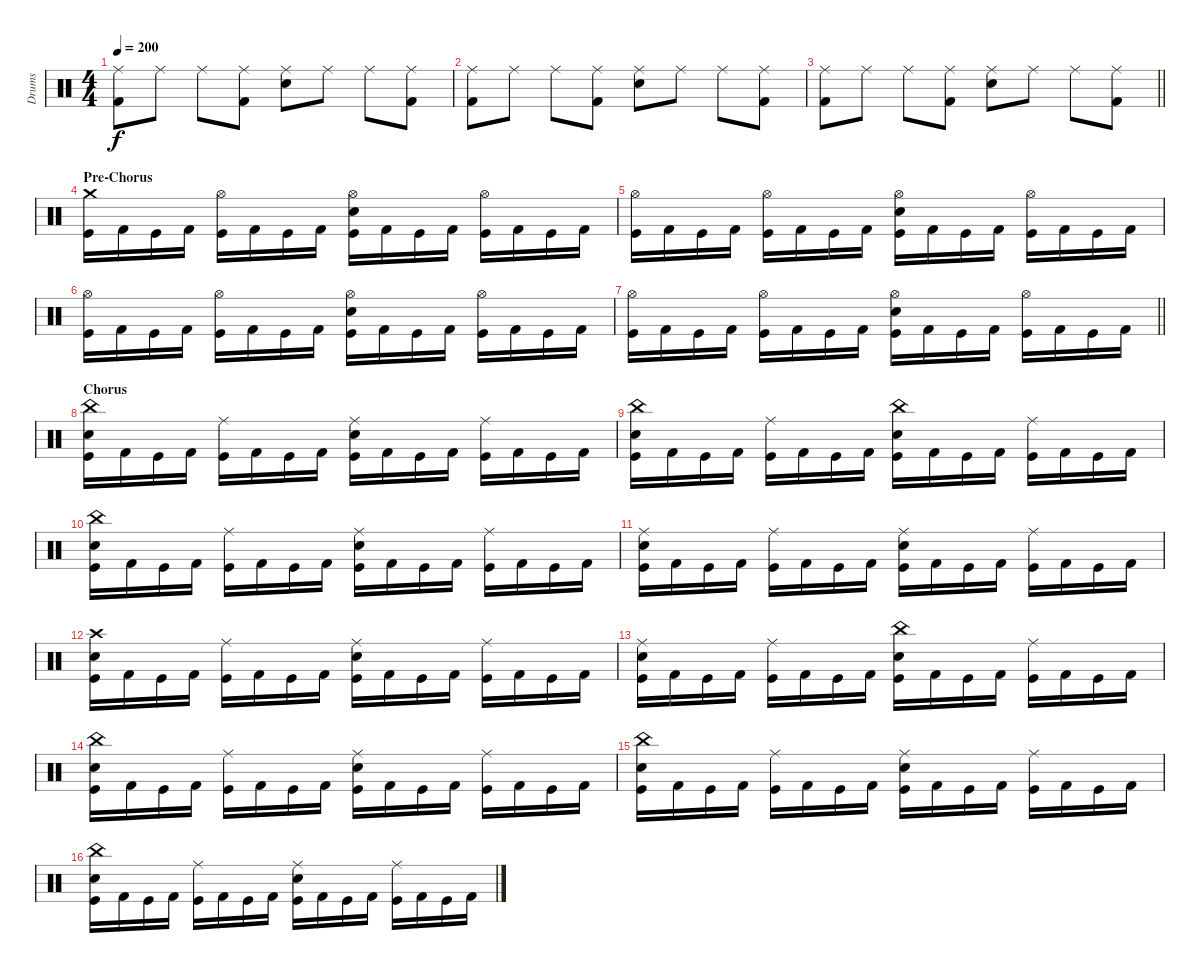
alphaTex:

\track ("Drums" "Drums") {instrument percussion}
\staff {score}
\articulation defaults
\ts (4 4)
\tempo 200
\clef neutral
\ks c
("Ride (middle)" "Kick (hit) 2").8{dy f} "Ride (middle)".8 "Ride (middle)".8 ("Ride (middle)" "Kick (hit) 2").8 ("Ride (middle)" "Electric Snare (hit)").8 "Ride (middle)".8 "Ride (middle)".8 ("Ride (middle)" "Kick (hit) 2").8 |
("Ride (middle)" "Kick (hit) 2").8 "Ride (middle)".8 "Ride (middle)".8 ("Ride (middle)" "Kick (hit) 2").8 ("Ride (middle)" "Electric Snare (hit)").8 "Ride (middle)".8 "Ride (middle)".8 ("Ride (middle)" "Kick (hit) 2").8 |
\barLineRight lightlight
("Ride (middle)" "Kick (hit) 2").8 "Ride (middle)".8 "Ride (middle)".8 ("Ride (middle)" "Kick (hit) 2").8 ("Ride (middle)" "Electric Snare (hit)").8 "Ride (middle)".8 "Ride (middle)".8 ("Ride (middle)" "Kick (hit) 2").8 |
\section ("" "Pre-Chorus")
("Crash medium (hit)" "Kick (hit)").16 "Kick (hit) 2".16 "Kick (hit)".16 "Kick (hit) 2".16 ("Hi-Hat (open)" "Kick (hit)").16 "Kick (hit) 2".16 "Kick (hit)".16 "Kick (hit) 2".16 ("Hi-Hat (open)" "Electric Snare (hit)" "Kick (hit)").16 "Kick (hit) 2".16 "Kick (hit)".16 "Kick (hit) 2".16 ("Hi-Hat (open)" "Kick (hit)").16 "Kick (hit) 2".16 "Kick (hit)".16 "Kick (hit) 2".16 |
("Hi-Hat (open)" "Kick (hit)").16 "Kick (hit) 2".16 "Kick (hit)".16 "Kick (hit) 2".16 ("Hi-Hat (open)" "Kick (hit)").16 "Kick (hit) 2".16 "Kick (hit)".16 "Kick (hit) 2".16 ("Hi-Hat (open)" "Electric Snare (hit)" "Kick (hit)").16 "Kick (hit) 2".16 "Kick (hit)".16 "Kick (hit) 2".16 ("Hi-Hat (open)" "Kick (hit)").16 "Kick (hit) 2".16 "Kick (hit)".16 "Kick (hit) 2".16 |
("Hi-Hat (open)" "Kick (hit)").16 "Kick (hit) 2".16 "Kick (hit)".16 "Kick (hit) 2".16 ("Hi-Hat (open)" "Kick (hit)").16 "Kick (hit) 2".16 "Kick (hit)".16 "Kick (hit) 2".16 ("Hi-Hat (open)" "Electric Snare (hit)" "Kick (hit)").16 "Kick (hit) 2".16 "Kick (hit)".16 "Kick (hit) 2".16 ("Hi-Hat (open)" "Kick (hit)").16 "Kick (hit) 2".16 "Kick (hit)".16 "Kick (hit) 2".16 |
\barLineRight lightlight
("Hi-Hat (open)" "Kick (hit)").16 "Kick (hit) 2".16 "Kick (hit)".16 "Kick (hit) 2".16 ("Hi-Hat (open)" "Kick (hit)").16 "Kick (hit) 2".16 "Kick (hit)".16 "Kick (hit) 2".16 ("Hi-Hat (open)" "Electric Snare (hit)" "Kick (hit)").16 "Kick (hit) 2".16 "Kick (hit)".16 "Kick (hit) 2".16 ("Hi-Hat (open)" "Kick (hit)").16 "Kick (hit) 2".16 "Kick (hit)".16 "Kick (hit) 2".16 |
\section ("" "Chorus")
("China (hit)" "Electric Snare (hit)" "Kick (hit)").16 "Kick (hit) 2".16 "Kick (hit)".16 "Kick (hit) 2".16 ("Ride (middle)" "Kick (hit)").16 "Kick (hit) 2".16 "Kick (hit)".16 "Kick (hit) 2".16 ("Ride (middle)" "Electric Snare (hit)" "Kick (hit)").16 "Kick (hit) 2".16 "Kick (hit)".16 "Kick (hit) 2".16 ("Ride (middle)" "Kick (hit)").16 "Kick (hit) 2".16 "Kick (hit)".16 "Kick (hit) 2".16 |
("China (hit)" "Electric Snare (hit)" "Kick (hit)").16 "Kick (hit) 2".16 "Kick (hit)".16 "Kick (hit) 2".16 ("Ride (middle)" "Kick (hit)").16 "Kick (hit) 2".16 "Kick (hit)".16 "Kick (hit) 2".16 ("China (hit)" "Electric Snare (hit)" "Kick (hit)").16 "Kick (hit) 2".16 "Kick (hit)".16 "Kick (hit) 2".16 ("Ride (middle)" "Kick (hit)").16 "Kick (hit) 2".16 "Kick (hit)".16 "Kick (hit) 2".16 |
("China (hit)" "Electric Snare (hit)" "Kick (hit)").16 "Kick (hit) 2".16 "Kick (hit)".16 "Kick (hit) 2".16 ("Ride (middle)" "Kick (hit)").16 "Kick (hit) 2".16 "Kick (hit)".16 "Kick (hit) 2".16 ("Ride (middle)" "Electric Snare (hit)" "Kick (hit)").16 "Kick (hit) 2".16 "Kick (hit)".16 "Kick (hit) 2".16 ("Ride (middle)" "Kick (hit)").16 "Kick (hit) 2".16 "Kick (hit)".16 "Kick (hit) 2".16 |
("Ride (middle)" "Electric Snare (hit)" "Kick (hit)").16 "Kick (hit) 2".16 "Kick (hit)".16 "Kick (hit) 2".16 ("Ride (middle)" "Kick (hit)").16 "Kick (hit) 2".16 "Kick (hit)".16 "Kick (hit) 2".16 ("Ride (middle)" "Electric Snare (hit)" "Kick (hit)").16 "Kick (hit) 2".16 "Kick (hit)".16 "Kick (hit) 2".16 ("Ride (middle)" "Kick (hit)").16 "Kick (hit) 2".16 "Kick (hit)".16 "Kick (hit) 2".16 |
("Crash high (hit)" "Electric Snare (hit)" "Kick (hit)").16 "Kick (hit) 2".16 "Kick (hit)".16 "Kick (hit) 2".16 ("Ride (middle)" "Kick (hit)").16 "Kick (hit) 2".16 "Kick (hit)".16 "Kick (hit) 2".16 ("Ride (middle)" "Electric Snare (hit)" "Kick (hit)").16 "Kick (hit) 2".16 "Kick (hit)".16 "Kick (hit) 2".16 ("Ride (middle)" "Kick (hit)").16 "Kick (hit) 2".16 "Kick (hit)".16 "Kick (hit) 2".16 |
("Ride (middle)" "Electric Snare (hit)" "Kick (hit)").16 "Kick (hit) 2".16 "Kick (hit)".16 "Kick (hit) 2".16 ("Ride (middle)" "Kick (hit)").16 "Kick (hit) 2".16 "Kick (hit)".16 "Kick (hit) 2".16 ("China (hit)" "Electric Snare (hit)" "Kick (hit)").16 "Kick (hit) 2".16 "Kick (hit)".16 "Kick (hit) 2".16 ("Ride (middle)" "Kick (hit)").16 "Kick (hit) 2".16 "Kick (hit)".16 "Kick (hit) 2".16 |
("China (hit)" "Electric Snare (hit)" "Kick (hit)").16 "Kick (hit) 2".16 "Kick (hit)".16 "Kick (hit) 2".16 ("Ride (middle)" "Kick (hit)").16 "Kick (hit) 2".16 "Kick (hit)".16 "Kick (hit) 2".16 ("Ride (middle)" "Electric Snare (hit)" "Kick (hit)").16 "Kick (hit) 2".16 "Kick (hit)".16 "Kick (hit) 2".16 ("Ride (middle)" "Kick (hit)").16 "Kick (hit) 2".16 "Kick (hit)".16 "Kick (hit) 2".16 |
("China (hit)" "Electric Snare (hit)" "Kick (hit)").16 "Kick (hit) 2".16 "Kick (hit)".16 "Kick (hit) 2".16 ("Ride (middle)" "Kick (hit)").16 "Kick (hit) 2".16 "Kick (hit)".16 "Kick (hit) 2".16 ("Ride (middle)" "Electric Snare (hit)" "Kick (hit)").16 "Kick (hit) 2".16 "Kick (hit)".16 "Kick (hit) 2".16 ("Ride (middle)" "Kick (hit)").16 "Kick (hit) 2".16 "Kick (hit)".16 "Kick (hit) 2".16 |
("China (hit)" "Electric Snare (hit)" "Kick (hit)").16 "Kick (hit) 2".16 "Kick (hit)".16 "Kick (hit) 2".16 ("Ride (middle)" "Kick (hit)").16 "Kick (hit) 2".16 "Kick (hit)".16 "Kick (hit) 2".16 ("Ride (middle)" "Electric Snare (hit)" "Kick (hit)").16 "Kick (hit) 2".16 "Kick (hit)".16 "Kick (hit) 2".16 ("Ride (middle)" "Kick (hit)").16 "Kick (hit) 2".16 "Kick (hit)".16 "Kick (hit) 2".16
